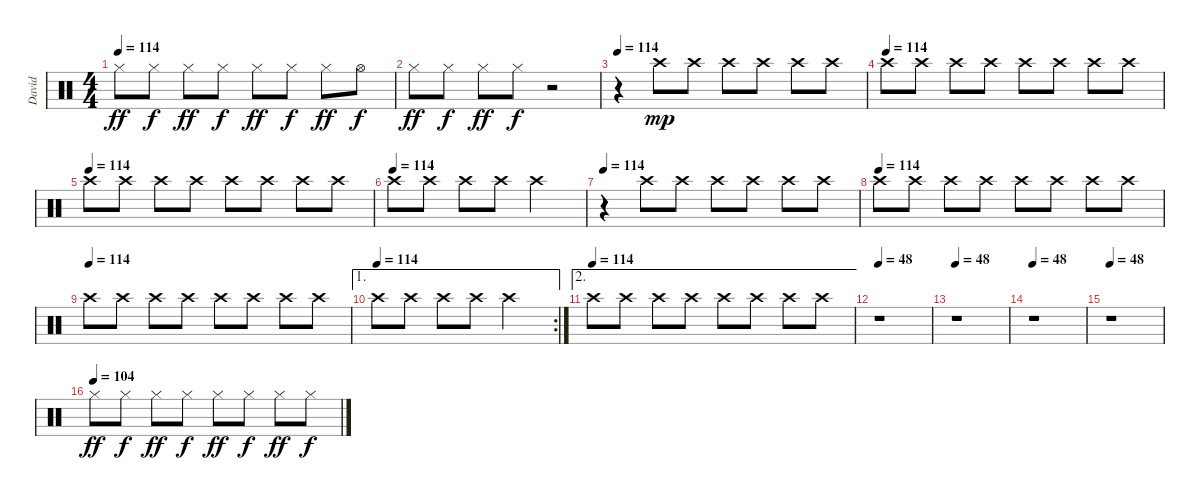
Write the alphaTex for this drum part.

\track ("David" "David") {instrument percussion}
\staff {score}
\articulation defaults
\ts (4 4)
\tempo 114
\clef neutral
\ks c "Hi-Hat (closed)".8{dy ff} "Hi-Hat (closed)".8{dy f} "Hi-Hat (closed)".8{dy ff} "Hi-Hat (closed)".8{dy f} "Hi-Hat (closed)".8{dy ff} "Hi-Hat (closed)".8{dy f} "Hi-Hat (closed)".8{dy ff} "Hi-Hat (open)".8{dy f}
|
"Hi-Hat (closed)".8{dy ff} "Hi-Hat (closed)".8{dy f} "Hi-Hat (closed)".8{dy ff} "Hi-Hat (closed)".8{dy f} r.2 |
\tempo 114
r.4 "Crash high (hit)".8{dy mp} "Crash high (hit)".8 "Crash high (hit)".8 "Crash high (hit)".8 "Crash high (hit)".8 "Crash high (hit)".8 |
\tempo (114)
"Crash high (hit)".8 "Crash high (hit)".8 "Crash high (hit)".8 "Crash high (hit)".8 "Crash high (hit)".8 "Crash high (hit)".8 "Crash high (hit)".8 "Crash high (hit)".8 |
\tempo (114)
"Crash high (hit)".8 "Crash high (hit)".8 "Crash high (hit)".8 "Crash high (hit)".8 "Crash high (hit)".8 "Crash high (hit)".8 "Crash high (hit)".8 "Crash high (hit)".8 |
\tempo (114)
"Crash high (hit)".8 "Crash high (hit)".8 "Crash high (hit)".8 "Crash high (hit)".8 "Crash high (hit)".2 |
\tempo 114
r.4 "Crash high (hit)".8 "Crash high (hit)".8 "Crash high (hit)".8 "Crash high (hit)".8 "Crash high (hit)".8 "Crash high (hit)".8 |
\tempo (114)
"Crash high (hit)".8 "Crash high (hit)".8 "Crash high (hit)".8 "Crash high (hit)".8 "Crash high (hit)".8 "Crash high (hit)".8 "Crash high (hit)".8 "Crash high (hit)".8 |
\tempo (114)
"Crash high (hit)".8 "Crash high (hit)".8 "Crash high (hit)".8 "Crash high (hit)".8 "Crash high (hit)".8 "Crash high (hit)".8 "Crash high (hit)".8 "Crash high (hit)".8 |
\ae 1
\rc 2
\tempo (114)
"Crash high (hit)".8 "Crash high (hit)".8 "Crash high (hit)".8 "Crash high (hit)".8 "Crash high (hit)".2 |
\ae 2
\tempo (114)
"Crash high (hit)".8 "Crash high (hit)".8 "Crash high (hit)".8 "Crash high (hit)".8 "Crash high (hit)".8 "Crash high (hit)".8 "Crash high (hit)".8 "Crash high (hit)".8 |
\tempo 48
r.1 |
\tempo 48
r.1 |
\tempo 48
r.1 |
\tempo 48
r.1 |
\tempo (104)
"Hi-Hat (closed)".8{dy ff} "Hi-Hat (closed)".8{dy f} "Hi-Hat (closed)".8{dy ff} "Hi-Hat (closed)".8{dy f} "Hi-Hat (closed)".8{dy ff} "Hi-Hat (closed)".8{dy f} "Hi-Hat (closed)".8{dy ff} "Hi-Hat (closed)".8{dy f}
